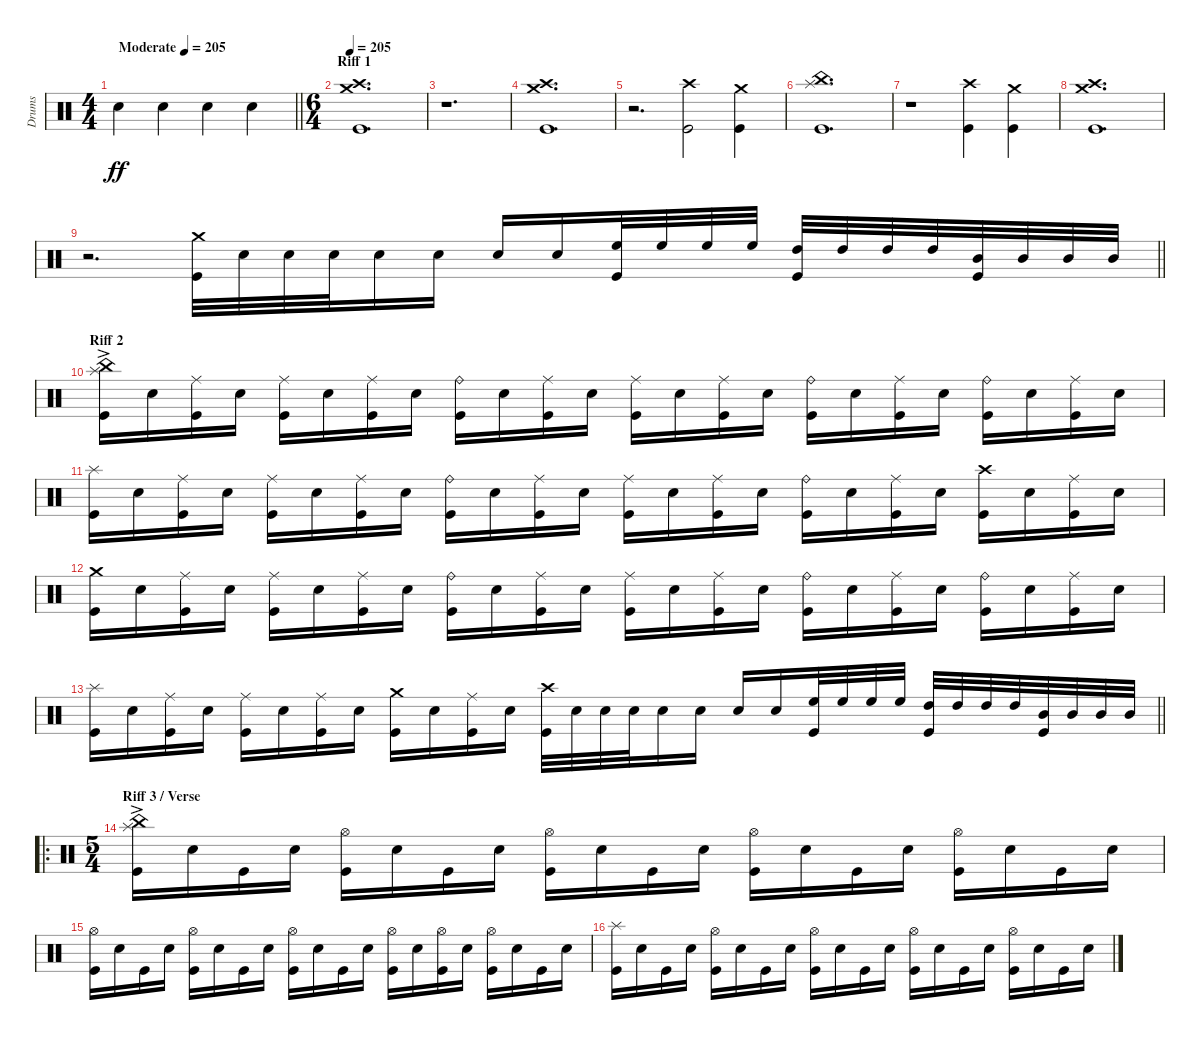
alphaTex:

\track ("Drums" "Drums") {instrument percussion}
\staff {score}
\articulation defaults
\ts (4 4)
\tempo (205 "Moderate")
\clef neutral
\barLineRight lightlight
\ks c "Electric Snare (hit)".4{dy ff} "Electric Snare (hit)".4 "Electric Snare (hit)".4 "Electric Snare (hit)".4
|
\ts (6 4)
\section ("" "Riff 1")
\tempo 205
("Crash high (hit)" "Crash medium (hit)" "Kick (hit)").1{d} |
r.1{d} |
("Crash high (hit)" "Crash medium (hit)" "Kick (hit)").1{d} |
r.2{d} ("Crash high (hit)" "Kick (hit)").2 ("Crash medium (hit)" "Kick (hit)").4 |
("China (hit)" "Splash (hit)" "Kick (hit)").1{d} |
r.1 ("Crash high (hit)" "Kick (hit)").4 ("Crash medium (hit)" "Kick (hit)").4 |
("Crash high (hit)" "Crash medium (hit)" "Kick (hit)").1{d} |
\barLineRight lightlight
r.2{d} ("Crash medium (hit)" "Kick (hit)").32 "Electric Snare (hit)".32 "Electric Snare (hit)".32 "Electric Snare (hit)".32 "Electric Snare (hit)".16 "Electric Snare (hit)".16 "Electric Snare (hit)".16 "Electric Snare (hit)".16 ("High Floor Tom (hit)" "Kick (hit)").32 "High Floor Tom (hit)".32 "High Floor Tom (hit)".32 "High Floor Tom (hit)".32 ("High Tom (hit)" "Kick (hit)").32 "High Tom (hit)".32 "High Tom (hit)".32 "High Tom (hit)".32 ("Mid Tom (hit)" "Kick (hit)").32 "Mid Tom (hit)".32 "Mid Tom (hit)".32 "Mid Tom (hit)".32 |
\section ("" "Riff 2")
("China (hit)"{ac} "Splash (hit)" "Kick (hit)").16 "Electric Snare (hit)".16 ("Ride (middle)" "Kick (hit)").16 "Electric Snare (hit)".16 ("Ride (middle)" "Kick (hit)").16 "Electric Snare (hit)".16 ("Ride (middle)" "Kick (hit)").16 "Electric Snare (hit)".16 ("Ride (bell)" "Kick (hit)").16 "Electric Snare (hit)".16 ("Ride (middle)" "Kick (hit)").16 "Electric Snare (hit)".16 ("Ride (middle)" "Kick (hit)").16 "Electric Snare (hit)".16 ("Ride (middle)" "Kick (hit)").16 "Electric Snare (hit)".16 ("Ride (bell)" "Kick (hit)").16 "Electric Snare (hit)".16 ("Ride (middle)" "Kick (hit)").16 "Electric Snare (hit)".16 ("Ride (bell)" "Kick (hit)").16 "Electric Snare (hit)".16 ("Ride (middle)" "Kick (hit)").16 "Electric Snare (hit)".16 |
("Splash (hit)" "Kick (hit)").16 "Electric Snare (hit)".16 ("Ride (middle)" "Kick (hit)").16 "Electric Snare (hit)".16 ("Ride (middle)" "Kick (hit)").16 "Electric Snare (hit)".16 ("Ride (middle)" "Kick (hit)").16 "Electric Snare (hit)".16 ("Ride (bell)" "Kick (hit)").16 "Electric Snare (hit)".16 ("Ride (middle)" "Kick (hit)").16 "Electric Snare (hit)".16 ("Ride (middle)" "Kick (hit)").16 "Electric Snare (hit)".16 ("Ride (middle)" "Kick (hit)").16 "Electric Snare (hit)".16 ("Ride (bell)" "Kick (hit)").16 "Electric Snare (hit)".16 ("Ride (middle)" "Kick (hit)").16 "Electric Snare (hit)".16 ("Crash high (hit)" "Kick (hit)").16 "Electric Snare (hit)".16 ("Ride (middle)" "Kick (hit)").16 "Electric Snare (hit)".16 |
("Crash medium (hit)" "Kick (hit)").16 "Electric Snare (hit)".16 ("Ride (middle)" "Kick (hit)").16 "Electric Snare (hit)".16 ("Ride (middle)" "Kick (hit)").16 "Electric Snare (hit)".16 ("Ride (middle)" "Kick (hit)").16 "Electric Snare (hit)".16 ("Ride (bell)" "Kick (hit)").16 "Electric Snare (hit)".16 ("Ride (middle)" "Kick (hit)").16 "Electric Snare (hit)".16 ("Ride (middle)" "Kick (hit)").16 "Electric Snare (hit)".16 ("Ride (middle)" "Kick (hit)").16 "Electric Snare (hit)".16 ("Ride (bell)" "Kick (hit)").16 "Electric Snare (hit)".16 ("Ride (middle)" "Kick (hit)").16 "Electric Snare (hit)".16 ("Ride (bell)" "Kick (hit)").16 "Electric Snare (hit)".16 ("Ride (middle)" "Kick (hit)").16 "Electric Snare (hit)".16 |
\barLineRight lightlight
("Splash (hit)" "Kick (hit)").16 "Electric Snare (hit)".16 ("Ride (middle)" "Kick (hit)").16 "Electric Snare (hit)".16 ("Ride (middle)" "Kick (hit)").16 "Electric Snare (hit)".16 ("Ride (middle)" "Kick (hit)").16 "Electric Snare (hit)".16 ("Crash medium (hit)" "Kick (hit)").16 "Electric Snare (hit)".16 ("Ride (middle)" "Kick (hit)").16 "Electric Snare (hit)".16 ("Crash high (hit)" "Kick (hit)").32 "Electric Snare (hit)".32 "Electric Snare (hit)".32 "Electric Snare (hit)".32 "Electric Snare (hit)".16 "Electric Snare (hit)".16 "Electric Snare (hit)".16 "Electric Snare (hit)".16 ("High Floor Tom (hit)" "Kick (hit)").32 "High Floor Tom (hit)".32 "High Floor Tom (hit)".32 "High Floor Tom (hit)".32 ("High Tom (hit)" "Kick (hit)").32 "High Tom (hit)".32 "High Tom (hit)".32 "High Tom (hit)".32 ("Mid Tom (hit)" "Kick (hit)").32 "Mid Tom (hit)".32 "Mid Tom (hit)".32 "Mid Tom (hit)".32 |
\ro
\ts (5 4)
\section ("" "Riff 3 / Verse")
("China (hit)"{ac} "Splash (hit)" "Kick (hit)").16 "Electric Snare (hit)".16 "Kick (hit)".16 "Electric Snare (hit)".16 ("Hi-Hat (open)" "Kick (hit)").16 "Electric Snare (hit)".16 "Kick (hit)".16 "Electric Snare (hit)".16 ("Hi-Hat (open)" "Kick (hit)").16 "Electric Snare (hit)".16 "Kick (hit)".16 "Electric Snare (hit)".16 ("Hi-Hat (open)" "Kick (hit)").16 "Electric Snare (hit)".16 "Kick (hit)".16 "Electric Snare (hit)".16 ("Hi-Hat (open)" "Kick (hit)").16 "Electric Snare (hit)".16 "Kick (hit)".16 "Electric Snare (hit)".16 |
("Hi-Hat (open)" "Kick (hit)").16 "Electric Snare (hit)".16 "Kick (hit)".16 "Electric Snare (hit)".16 ("Hi-Hat (open)" "Kick (hit)").16 "Electric Snare (hit)".16 "Kick (hit)".16 "Electric Snare (hit)".16 ("Hi-Hat (open)" "Kick (hit)").16 "Electric Snare (hit)".16 "Kick (hit)".16 "Electric Snare (hit)".16 ("Hi-Hat (open)" "Kick (hit)").16 "Electric Snare (hit)".16 ("Hi-Hat (open)" "Kick (hit)").16 "Electric Snare (hit)".16 ("Hi-Hat (open)" "Kick (hit)").16 "Electric Snare (hit)".16 "Kick (hit)".16 "Electric Snare (hit)".16 |
("Splash (hit)" "Kick (hit)").16 "Electric Snare (hit)".16 "Kick (hit)".16 "Electric Snare (hit)".16 ("Hi-Hat (open)" "Kick (hit)").16 "Electric Snare (hit)".16 "Kick (hit)".16 "Electric Snare (hit)".16 ("Hi-Hat (open)" "Kick (hit)").16 "Electric Snare (hit)".16 "Kick (hit)".16 "Electric Snare (hit)".16 ("Hi-Hat (open)" "Kick (hit)").16 "Electric Snare (hit)".16 "Kick (hit)".16 "Electric Snare (hit)".16 ("Hi-Hat (open)" "Kick (hit)").16 "Electric Snare (hit)".16 "Kick (hit)".16 "Electric Snare (hit)".16
